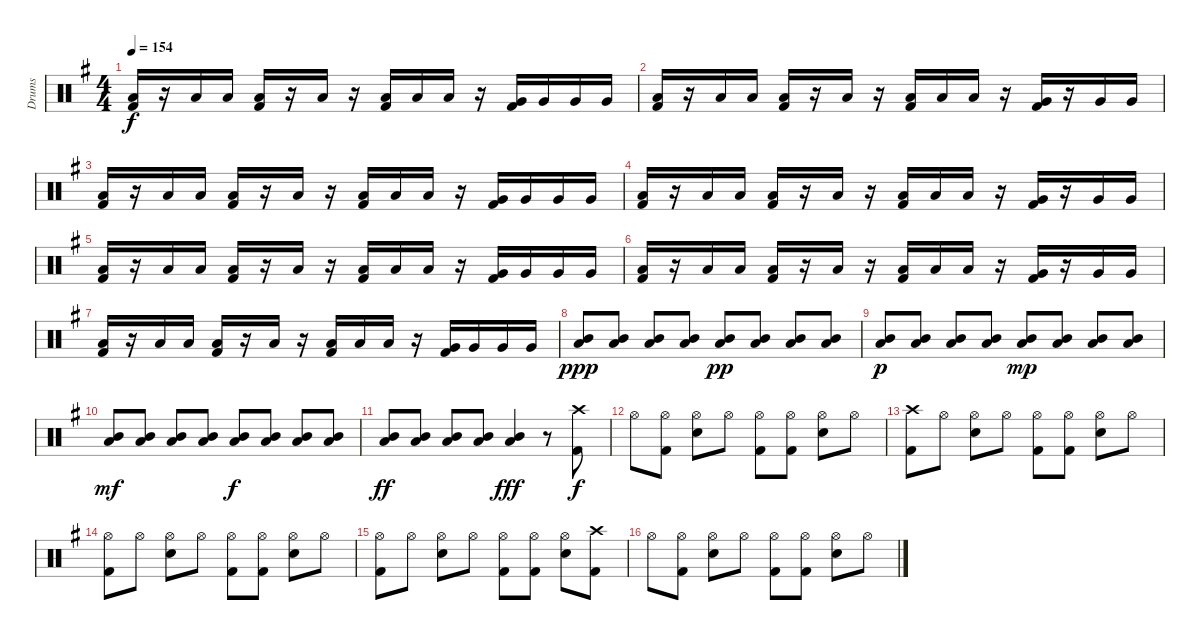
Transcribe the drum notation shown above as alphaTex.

\track ("Drums" "Drums") {instrument percussion}
\staff {score}
\articulation defaults
\ts (4 4)
\tempo 154
\clef neutral
\ks g
("Low Tom (hit)" "Kick (hit) 2").16{dy f} r.16 "Low Tom (hit)".16 "Low Tom (hit)".16 ("Low Tom (hit)" "Kick (hit) 2").16 r.16 "Low Tom (hit)".16 r.16 ("Low Tom (hit)" "Kick (hit) 2").16 "Low Tom (hit)".16 "Low Tom (hit)".16 r.16 ("Very Low Tom (hit)" "Kick (hit) 2").16 "Very Low Tom (hit)".16 "Very Low Tom (hit)".16 "Very Low Tom (hit)".16 |
("Low Tom (hit)" "Kick (hit) 2").16 r.16 "Low Tom (hit)".16 "Low Tom (hit)".16 ("Low Tom (hit)" "Kick (hit) 2").16 r.16 "Low Tom (hit)".16 r.16 ("Low Tom (hit)" "Kick (hit) 2").16 "Low Tom (hit)".16 "Low Tom (hit)".16 r.16 ("Very Low Tom (hit)" "Kick (hit) 2").16 r.16 "Very Low Tom (hit)".16 "Very Low Tom (hit)".16 |
("Low Tom (hit)" "Kick (hit) 2").16 r.16 "Low Tom (hit)".16 "Low Tom (hit)".16 ("Low Tom (hit)" "Kick (hit) 2").16 r.16 "Low Tom (hit)".16 r.16 ("Low Tom (hit)" "Kick (hit) 2").16 "Low Tom (hit)".16 "Low Tom (hit)".16 r.16 ("Very Low Tom (hit)" "Kick (hit) 2").16 "Very Low Tom (hit)".16 "Very Low Tom (hit)".16 "Very Low Tom (hit)".16 |
("Low Tom (hit)" "Kick (hit) 2").16 r.16 "Low Tom (hit)".16 "Low Tom (hit)".16 ("Low Tom (hit)" "Kick (hit) 2").16 r.16 "Low Tom (hit)".16 r.16 ("Low Tom (hit)" "Kick (hit) 2").16 "Low Tom (hit)".16 "Low Tom (hit)".16 r.16 ("Very Low Tom (hit)" "Kick (hit) 2").16 r.16 "Very Low Tom (hit)".16 "Very Low Tom (hit)".16 |
("Low Tom (hit)" "Kick (hit) 2").16 r.16 "Low Tom (hit)".16 "Low Tom (hit)".16 ("Low Tom (hit)" "Kick (hit) 2").16 r.16 "Low Tom (hit)".16 r.16 ("Low Tom (hit)" "Kick (hit) 2").16 "Low Tom (hit)".16 "Low Tom (hit)".16 r.16 ("Very Low Tom (hit)" "Kick (hit) 2").16 "Very Low Tom (hit)".16 "Very Low Tom (hit)".16 "Very Low Tom (hit)".16 |
("Low Tom (hit)" "Kick (hit) 2").16 r.16 "Low Tom (hit)".16 "Low Tom (hit)".16 ("Low Tom (hit)" "Kick (hit) 2").16 r.16 "Low Tom (hit)".16 r.16 ("Low Tom (hit)" "Kick (hit) 2").16 "Low Tom (hit)".16 "Low Tom (hit)".16 r.16 ("Very Low Tom (hit)" "Kick (hit) 2").16 r.16 "Very Low Tom (hit)".16 "Very Low Tom (hit)".16 |
("Low Tom (hit)" "Kick (hit) 2").16 r.16 "Low Tom (hit)".16 "Low Tom (hit)".16 ("Low Tom (hit)" "Kick (hit) 2").16 r.16 "Low Tom (hit)".16 r.16 ("Low Tom (hit)" "Kick (hit) 2").16 "Low Tom (hit)".16 "Low Tom (hit)".16 r.16 ("Very Low Tom (hit)" "Kick (hit) 2").16 "Very Low Tom (hit)".16 "Very Low Tom (hit)".16 "Very Low Tom (hit)".16 |
("Low Tom (hit)" "Mid Tom (hit)").8{dy ppp} ("Low Tom (hit)" "Mid Tom (hit)").8 ("Low Tom (hit)" "Mid Tom (hit)").8 ("Low Tom (hit)" "Mid Tom (hit)").8 ("Low Tom (hit)" "Mid Tom (hit)").8{dy pp} ("Low Tom (hit)" "Mid Tom (hit)").8 ("Low Tom (hit)" "Mid Tom (hit)").8 ("Low Tom (hit)" "Mid Tom (hit)").8 |
("Low Tom (hit)" "Mid Tom (hit)").8{dy p} ("Low Tom (hit)" "Mid Tom (hit)").8 ("Low Tom (hit)" "Mid Tom (hit)").8 ("Low Tom (hit)" "Mid Tom (hit)").8 ("Low Tom (hit)" "Mid Tom (hit)").8{dy mp} ("Low Tom (hit)" "Mid Tom (hit)").8 ("Low Tom (hit)" "Mid Tom (hit)").8 ("Low Tom (hit)" "Mid Tom (hit)").8 |
("Low Tom (hit)" "Mid Tom (hit)").8{dy mf} ("Low Tom (hit)" "Mid Tom (hit)").8 ("Low Tom (hit)" "Mid Tom (hit)").8 ("Low Tom (hit)" "Mid Tom (hit)").8 ("Low Tom (hit)" "Mid Tom (hit)").8{dy f} ("Low Tom (hit)" "Mid Tom (hit)").8 ("Low Tom (hit)" "Mid Tom (hit)").8 ("Low Tom (hit)" "Mid Tom (hit)").8 |
("Low Tom (hit)" "Mid Tom (hit)").8{dy ff} ("Low Tom (hit)" "Mid Tom (hit)").8 ("Low Tom (hit)" "Mid Tom (hit)").8 ("Low Tom (hit)" "Mid Tom (hit)").8 ("Low Tom (hit)" "Mid Tom (hit)").4{dy fff} r.8 ("Kick (hit) 2" "Crash high (hit)").8{dy f} |
"Hi-Hat (open)".8 ("Kick (hit) 2" "Hi-Hat (open)").8 ("Hi-Hat (open)" "Electric Snare (hit)").8 "Hi-Hat (open)".8 ("Hi-Hat (open)" "Kick (hit) 2").8 ("Hi-Hat (open)" "Kick (hit) 2").8 ("Hi-Hat (open)" "Electric Snare (hit)").8 "Hi-Hat (open)".8 |
("Crash high (hit)" "Kick (hit) 2").8 "Hi-Hat (open)".8 ("Hi-Hat (open)" "Electric Snare (hit)").8 "Hi-Hat (open)".8 ("Hi-Hat (open)" "Kick (hit) 2").8 ("Kick (hit) 2" "Hi-Hat (open)").8 ("Hi-Hat (open)" "Electric Snare (hit)").8 "Hi-Hat (open)".8 |
("Hi-Hat (open)" "Kick (hit) 2").8 "Hi-Hat (open)".8 ("Hi-Hat (open)" "Electric Snare (hit)").8 "Hi-Hat (open)".8 ("Hi-Hat (open)" "Kick (hit) 2").8 ("Kick (hit) 2" "Hi-Hat (open)").8 ("Hi-Hat (open)" "Electric Snare (hit)").8 "Hi-Hat (open)".8 |
("Hi-Hat (open)" "Kick (hit) 2").8 "Hi-Hat (open)".8 ("Hi-Hat (open)" "Electric Snare (hit)").8 "Hi-Hat (open)".8 ("Hi-Hat (open)" "Kick (hit) 2").8 ("Hi-Hat (open)" "Kick (hit) 2").8 ("Hi-Hat (open)" "Electric Snare (hit)").8 ("Crash high (hit)" "Kick (hit) 2").8 |
"Hi-Hat (open)".8 ("Kick (hit) 2" "Hi-Hat (open)").8 ("Hi-Hat (open)" "Electric Snare (hit)").8 "Hi-Hat (open)".8 ("Hi-Hat (open)" "Kick (hit) 2").8 ("Hi-Hat (open)" "Kick (hit) 2").8 ("Hi-Hat (open)" "Electric Snare (hit)").8 "Hi-Hat (open)".8
